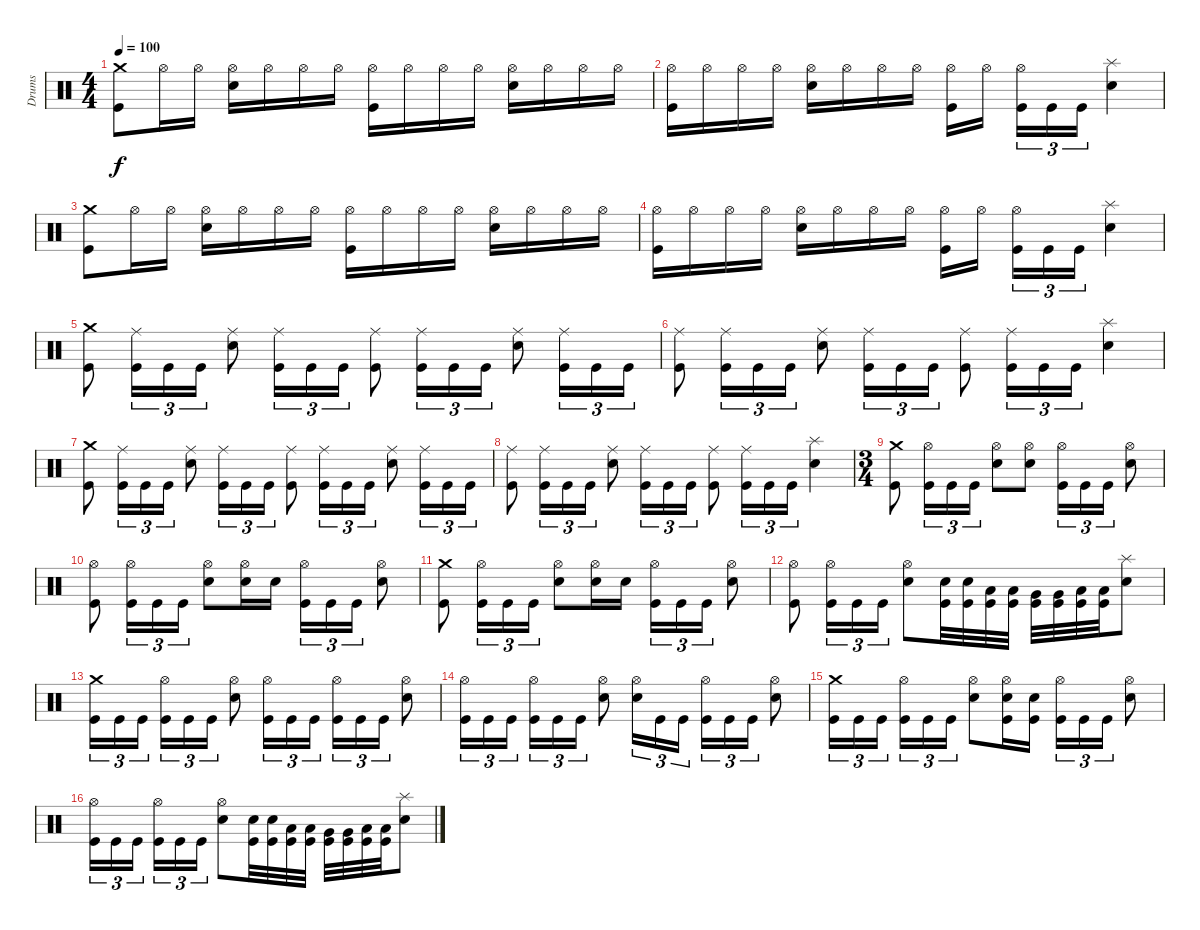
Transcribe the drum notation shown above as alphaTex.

\track ("Drums" "Drums") {instrument percussion}
\staff {score}
\articulation defaults
\ts (4 4)
\tempo 100
\clef neutral
\ks c
("Kick (hit)" "Crash medium (hit)").8{dy f} "Hi-Hat (open)".16 "Hi-Hat (open)".16 ("Hi-Hat (open)" "Electric Snare (hit)").16 "Hi-Hat (open)".16 "Hi-Hat (open)".16 "Hi-Hat (open)".16 ("Kick (hit)" "Hi-Hat (open)").16 "Hi-Hat (open)".16 "Hi-Hat (open)".16 "Hi-Hat (open)".16 ("Hi-Hat (open)" "Electric Snare (hit)").16 "Hi-Hat (open)".16 "Hi-Hat (open)".16 "Hi-Hat (open)".16 |
("Kick (hit)" "Hi-Hat (open)").16 "Hi-Hat (open)".16 "Hi-Hat (open)".16 "Hi-Hat (open)".16 ("Hi-Hat (open)" "Electric Snare (hit)").16 "Hi-Hat (open)".16 "Hi-Hat (open)".16 "Hi-Hat (open)".16 ("Kick (hit)" "Hi-Hat (open)").16 "Hi-Hat (open)".16 ("Kick (hit)" "Hi-Hat (open)").16{tu (3 2)} "Kick (hit)".16{tu (3 2)} "Kick (hit)".16{tu (3 2)} ("Electric Snare (hit)" "Splash (hit)").4 |
("Kick (hit)" "Crash medium (hit)").8 "Hi-Hat (open)".16 "Hi-Hat (open)".16 ("Hi-Hat (open)" "Electric Snare (hit)").16 "Hi-Hat (open)".16 "Hi-Hat (open)".16 "Hi-Hat (open)".16 ("Kick (hit)" "Hi-Hat (open)").16 "Hi-Hat (open)".16 "Hi-Hat (open)".16 "Hi-Hat (open)".16 ("Hi-Hat (open)" "Electric Snare (hit)").16 "Hi-Hat (open)".16 "Hi-Hat (open)".16 "Hi-Hat (open)".16 |
("Kick (hit)" "Hi-Hat (open)").16 "Hi-Hat (open)".16 "Hi-Hat (open)".16 "Hi-Hat (open)".16 ("Hi-Hat (open)" "Electric Snare (hit)").16 "Hi-Hat (open)".16 "Hi-Hat (open)".16 "Hi-Hat (open)".16 ("Kick (hit)" "Hi-Hat (open)").16 "Hi-Hat (open)".16 ("Kick (hit)" "Hi-Hat (open)").16{tu (3 2)} "Kick (hit)".16{tu (3 2)} "Kick (hit)".16{tu (3 2)} ("Electric Snare (hit)" "Splash (hit)").4 |
("Kick (hit)" "Crash medium (hit)").8 ("Kick (hit)" "Ride (middle)").16{tu (3 2)} "Kick (hit)".16{tu (3 2)} "Kick (hit)".16{tu (3 2)} ("Ride (middle)" "Electric Snare (hit)").8 ("Kick (hit)" "Ride (middle)").16{tu (3 2)} "Kick (hit)".16{tu (3 2)} "Kick (hit)".16{tu (3 2)} ("Kick (hit)" "Ride (middle)").8 ("Kick (hit)" "Ride (middle)").16{tu (3 2)} "Kick (hit)".16{tu (3 2)} "Kick (hit)".16{tu (3 2)} ("Ride (middle)" "Electric Snare (hit)").8 ("Kick (hit)" "Ride (middle)").16{tu (3 2)} "Kick (hit)".16{tu (3 2)} "Kick (hit)".16{tu (3 2)} |
("Kick (hit)" "Ride (middle)").8 ("Kick (hit)" "Ride (middle)").16{tu (3 2)} "Kick (hit)".16{tu (3 2)} "Kick (hit)".16{tu (3 2)} ("Ride (middle)" "Electric Snare (hit)").8 ("Kick (hit)" "Ride (middle)").16{tu (3 2)} "Kick (hit)".16{tu (3 2)} "Kick (hit)".16{tu (3 2)} ("Kick (hit)" "Ride (middle)").8 ("Kick (hit)" "Ride (middle)").16{tu (3 2)} "Kick (hit)".16{tu (3 2)} "Kick (hit)".16{tu (3 2)} ("Electric Snare (hit)" "Splash (hit)").4 |
("Kick (hit)" "Crash medium (hit)").8 ("Kick (hit)" "Ride (middle)").16{tu (3 2)} "Kick (hit)".16{tu (3 2)} "Kick (hit)".16{tu (3 2)} ("Ride (middle)" "Electric Snare (hit)").8 ("Kick (hit)" "Ride (middle)").16{tu (3 2)} "Kick (hit)".16{tu (3 2)} "Kick (hit)".16{tu (3 2)} ("Kick (hit)" "Ride (middle)").8 ("Kick (hit)" "Ride (middle)").16{tu (3 2)} "Kick (hit)".16{tu (3 2)} "Kick (hit)".16{tu (3 2)} ("Ride (middle)" "Electric Snare (hit)").8 ("Kick (hit)" "Ride (middle)").16{tu (3 2)} "Kick (hit)".16{tu (3 2)} "Kick (hit)".16{tu (3 2)} |
("Kick (hit)" "Ride (middle)").8 ("Kick (hit)" "Ride (middle)").16{tu (3 2)} "Kick (hit)".16{tu (3 2)} "Kick (hit)".16{tu (3 2)} ("Ride (middle)" "Electric Snare (hit)").8 ("Kick (hit)" "Ride (middle)").16{tu (3 2)} "Kick (hit)".16{tu (3 2)} "Kick (hit)".16{tu (3 2)} ("Kick (hit)" "Ride (middle)").8 ("Kick (hit)" "Ride (middle)").16{tu (3 2)} "Kick (hit)".16{tu (3 2)} "Kick (hit)".16{tu (3 2)} ("Electric Snare (hit)" "Splash (hit)").4 |
\ts (3 4)
("Kick (hit)" "Crash medium (hit)").8 ("Kick (hit)" "Hi-Hat (open)").16{tu (3 2)} "Kick (hit)".16{tu (3 2)} "Kick (hit)".16{tu (3 2)} ("Hi-Hat (open)" "Electric Snare (hit)").8 ("Hi-Hat (open)" "Electric Snare (hit)").8 ("Kick (hit)" "Hi-Hat (open)").16{tu (3 2)} "Kick (hit)".16{tu (3 2)} "Kick (hit)".16{tu (3 2)} ("Hi-Hat (open)" "Electric Snare (hit)").8 |
("Kick (hit)" "Hi-Hat (open)").8 ("Kick (hit)" "Hi-Hat (open)").16{tu (3 2)} "Kick (hit)".16{tu (3 2)} "Kick (hit)".16{tu (3 2)} ("Hi-Hat (open)" "Electric Snare (hit)").8 ("Hi-Hat (open)" "Electric Snare (hit)").16 "Electric Snare (hit)".16 ("Kick (hit)" "Hi-Hat (open)").16{tu (3 2)} "Kick (hit)".16{tu (3 2)} "Kick (hit)".16{tu (3 2)} ("Hi-Hat (open)" "Electric Snare (hit)").8 |
("Kick (hit)" "Crash medium (hit)").8 ("Kick (hit)" "Hi-Hat (open)").16{tu (3 2)} "Kick (hit)".16{tu (3 2)} "Kick (hit)".16{tu (3 2)} ("Hi-Hat (open)" "Electric Snare (hit)").8 ("Hi-Hat (open)" "Electric Snare (hit)").16 "Electric Snare (hit)".16 ("Kick (hit)" "Hi-Hat (open)").16{tu (3 2)} "Kick (hit)".16{tu (3 2)} "Kick (hit)".16{tu (3 2)} ("Hi-Hat (open)" "Electric Snare (hit)").8 |
("Kick (hit)" "Hi-Hat (open)").8 ("Kick (hit)" "Hi-Hat (open)").16{tu (3 2)} "Kick (hit)".16{tu (3 2)} "Kick (hit)".16{tu (3 2)} ("Hi-Hat (open)" "Electric Snare (hit)").8 ("Kick (hit)" "Electric Snare (hit)").32 ("Kick (hit)" "Electric Snare (hit)").32 ("Kick (hit)" "Low Tom (hit)").32 ("Kick (hit)" "Low Tom (hit)").32 ("Kick (hit)" "Very Low Tom (hit)").32 ("Kick (hit)" "Very Low Tom (hit)").32 ("Kick (hit)" "Low Floor Tom (hit)").32 ("Kick (hit)" "Low Floor Tom (hit)").32 ("Electric Snare (hit)" "Splash (hit)").8 |
("Kick (hit)" "Crash medium (hit)").16{tu (3 2)} "Kick (hit)".16{tu (3 2)} "Kick (hit)".16{tu (3 2)} ("Kick (hit)" "Hi-Hat (open)").16{tu (3 2)} "Kick (hit)".16{tu (3 2)} "Kick (hit)".16{tu (3 2)} ("Hi-Hat (open)" "Electric Snare (hit)").8 ("Kick (hit)" "Hi-Hat (open)").16{tu (3 2)} "Kick (hit)".16{tu (3 2)} "Kick (hit)".16{tu (3 2)} ("Kick (hit)" "Hi-Hat (open)").16{tu (3 2)} "Kick (hit)".16{tu (3 2)} "Kick (hit)".16{tu (3 2)} ("Hi-Hat (open)" "Electric Snare (hit)").8 |
("Kick (hit)" "Hi-Hat (open)").16{tu (3 2)} "Kick (hit)".16{tu (3 2)} "Kick (hit)".16{tu (3 2)} ("Kick (hit)" "Hi-Hat (open)").16{tu (3 2)} "Kick (hit)".16{tu (3 2)} "Kick (hit)".16{tu (3 2)} ("Hi-Hat (open)" "Electric Snare (hit)").8 ("Hi-Hat (open)" "Electric Snare (hit)").16{tu (3 2)} "Kick (hit)".16{tu (3 2)} "Kick (hit)".16{tu (3 2)} ("Kick (hit)" "Hi-Hat (open)").16{tu (3 2)} "Kick (hit)".16{tu (3 2)} "Kick (hit)".16{tu (3 2)} ("Hi-Hat (open)" "Electric Snare (hit)").8 |
("Kick (hit)" "Crash medium (hit)").16{tu (3 2)} "Kick (hit)".16{tu (3 2)} "Kick (hit)".16{tu (3 2)} ("Kick (hit)" "Hi-Hat (open)").16{tu (3 2)} "Kick (hit)".16{tu (3 2)} "Kick (hit)".16{tu (3 2)} ("Hi-Hat (open)" "Electric Snare (hit)").8 ("Kick (hit)" "Hi-Hat (open)" "Electric Snare (hit)").16 ("Kick (hit)" "Electric Snare (hit)").16 ("Kick (hit)" "Hi-Hat (open)").16{tu (3 2)} "Kick (hit)".16{tu (3 2)} "Kick (hit)".16{tu (3 2)} ("Hi-Hat (open)" "Electric Snare (hit)").8 |
("Kick (hit)" "Hi-Hat (open)").16{tu (3 2)} "Kick (hit)".16{tu (3 2)} "Kick (hit)".16{tu (3 2)} ("Kick (hit)" "Hi-Hat (open)").16{tu (3 2)} "Kick (hit)".16{tu (3 2)} "Kick (hit)".16{tu (3 2)} ("Hi-Hat (open)" "Electric Snare (hit)").8 ("Kick (hit)" "Electric Snare (hit)").32 ("Kick (hit)" "Electric Snare (hit)").32 ("Kick (hit)" "Low Tom (hit)").32 ("Kick (hit)" "Low Tom (hit)").32 ("Kick (hit)" "Very Low Tom (hit)").32 ("Kick (hit)" "Very Low Tom (hit)").32 ("Kick (hit)" "Low Floor Tom (hit)").32 ("Kick (hit)" "Low Floor Tom (hit)").32 ("Electric Snare (hit)" "Splash (hit)").8
